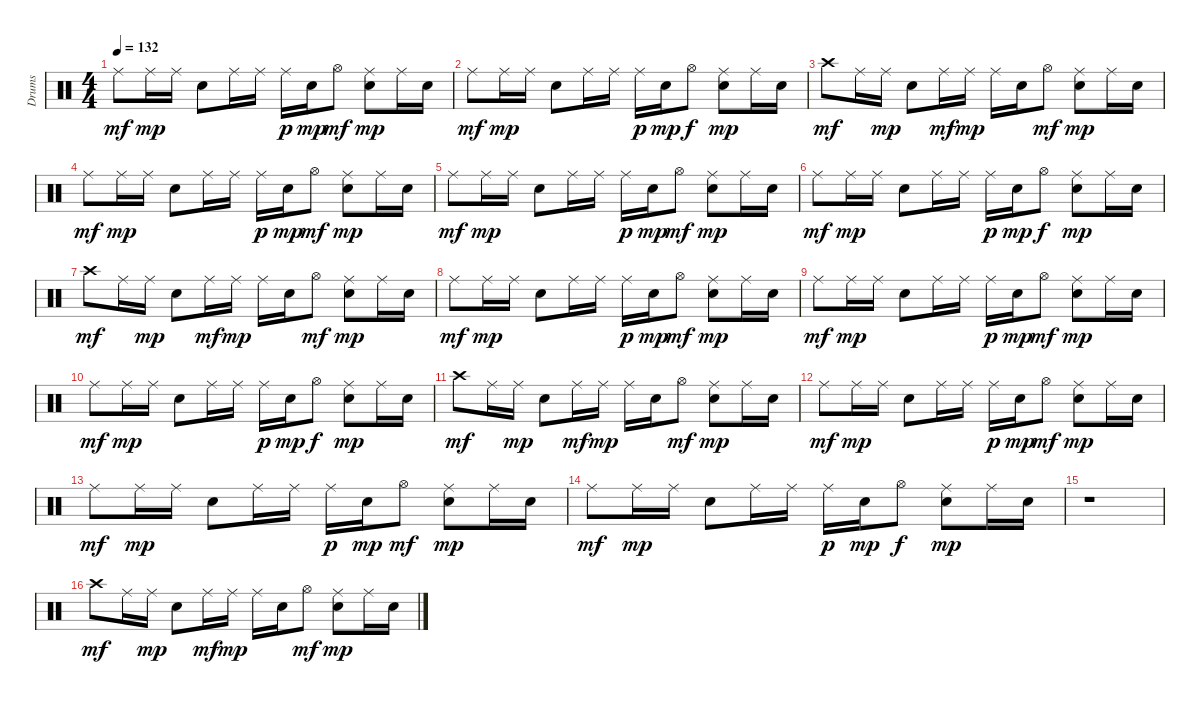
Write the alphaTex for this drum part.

\track ("Drums" "Drums") {instrument percussion}
\staff {score}
\articulation defaults
\ts (4 4)
\tempo 132
\clef neutral
\ks c "Ride (middle)".8{dy mf} "Ride (middle)".16{dy mp} "Ride (middle)".16 "Electric Snare (hit)".8 "Ride (middle)".16 "Ride (middle)".16 "Ride (middle)".16{dy p} "Electric Snare (hit)".16{dy mp} "Hi-Hat (open)".8{dy mf}
("Electric Snare (hit)" "Ride (middle)").8{dy mp} "Ride (middle)".16 "Electric Snare (hit)".16 |
"Ride (middle)".8{dy mf} "Ride (middle)".16{dy mp} "Ride (middle)".16 "Electric Snare (hit)".8 "Ride (middle)".16 "Ride (middle)".16 "Ride (middle)".16{dy p} "Electric Snare (hit)".16{dy mp} "Hi-Hat (open)".8{dy f} ("Electric Snare (hit)" "Ride (middle)").8{dy mp} "Ride (middle)".16 "Electric Snare (hit)".16 |
"Crash high (hit)".8{dy mf} "Ride (middle)".16 "Ride (middle)".16{dy mp} "Electric Snare (hit)".8 "Ride (middle)".16{dy mf} "Ride (middle)".16{dy mp} "Ride (middle)".16 "Electric Snare (hit)".16 "Hi-Hat (open)".8{dy mf} ("Electric Snare (hit)" "Ride (middle)").8{dy mp} "Ride (middle)".16 "Electric Snare (hit)".16 |
"Ride (middle)".8{dy mf} "Ride (middle)".16{dy mp} "Ride (middle)".16 "Electric Snare (hit)".8 "Ride (middle)".16 "Ride (middle)".16 "Ride (middle)".16{dy p} "Electric Snare (hit)".16{dy mp} "Hi-Hat (open)".8{dy mf} ("Ride (middle)" "Electric Snare (hit)").8{dy mp} "Ride (middle)".16 "Electric Snare (hit)".16 |
"Ride (middle)".8{dy mf} "Ride (middle)".16{dy mp} "Ride (middle)".16 "Electric Snare (hit)".8 "Ride (middle)".16 "Ride (middle)".16 "Ride (middle)".16{dy p} "Electric Snare (hit)".16{dy mp} "Hi-Hat (open)".8{dy mf} ("Ride (middle)" "Electric Snare (hit)").8{dy mp} "Ride (middle)".16 "Electric Snare (hit)".16 |
"Ride (middle)".8{dy mf} "Ride (middle)".16{dy mp} "Ride (middle)".16 "Electric Snare (hit)".8 "Ride (middle)".16 "Ride (middle)".16 "Ride (middle)".16{dy p} "Electric Snare (hit)".16{dy mp} "Hi-Hat (open)".8{dy f} ("Electric Snare (hit)" "Ride (middle)").8{dy mp} "Ride (middle)".16 "Electric Snare (hit)".16 |
"Crash high (hit)".8{dy mf} "Ride (middle)".16 "Ride (middle)".16{dy mp} "Electric Snare (hit)".8 "Ride (middle)".16{dy mf} "Ride (middle)".16{dy mp} "Ride (middle)".16 "Electric Snare (hit)".16 "Hi-Hat (open)".8{dy mf} ("Ride (middle)" "Electric Snare (hit)").8{dy mp} "Ride (middle)".16 "Electric Snare (hit)".16 |
"Ride (middle)".8{dy mf} "Ride (middle)".16{dy mp} "Ride (middle)".16 "Electric Snare (hit)".8 "Ride (middle)".16 "Ride (middle)".16 "Ride (middle)".16{dy p} "Electric Snare (hit)".16{dy mp} "Hi-Hat (open)".8{dy mf} ("Ride (middle)" "Electric Snare (hit)").8{dy mp} "Ride (middle)".16 "Electric Snare (hit)".16 |
"Ride (middle)".8{dy mf} "Ride (middle)".16{dy mp} "Ride (middle)".16 "Electric Snare (hit)".8 "Ride (middle)".16 "Ride (middle)".16 "Ride (middle)".16{dy p} "Electric Snare (hit)".16{dy mp} "Hi-Hat (open)".8{dy mf} ("Electric Snare (hit)" "Ride (middle)").8{dy mp} "Ride (middle)".16 "Electric Snare (hit)".16 |
"Ride (middle)".8{dy mf} "Ride (middle)".16{dy mp} "Ride (middle)".16 "Electric Snare (hit)".8 "Ride (middle)".16 "Ride (middle)".16 "Ride (middle)".16{dy p} "Electric Snare (hit)".16{dy mp} "Hi-Hat (open)".8{dy f} ("Electric Snare (hit)" "Ride (middle)").8{dy mp} "Ride (middle)".16 "Electric Snare (hit)".16 |
"Crash high (hit)".8{dy mf} "Ride (middle)".16 "Ride (middle)".16{dy mp} "Electric Snare (hit)".8 "Ride (middle)".16{dy mf} "Ride (middle)".16{dy mp} "Ride (middle)".16 "Electric Snare (hit)".16 "Hi-Hat (open)".8{dy mf} ("Ride (middle)" "Electric Snare (hit)").8{dy mp} "Ride (middle)".16 "Electric Snare (hit)".16 |
"Ride (middle)".8{dy mf} "Ride (middle)".16{dy mp} "Ride (middle)".16 "Electric Snare (hit)".8 "Ride (middle)".16 "Ride (middle)".16 "Ride (middle)".16{dy p} "Electric Snare (hit)".16{dy mp} "Hi-Hat (open)".8{dy mf} ("Ride (middle)" "Electric Snare (hit)").8{dy mp} "Ride (middle)".16 "Electric Snare (hit)".16 |
"Ride (middle)".8{dy mf} "Ride (middle)".16{dy mp} "Ride (middle)".16 "Electric Snare (hit)".8 "Ride (middle)".16 "Ride (middle)".16 "Ride (middle)".16{dy p} "Electric Snare (hit)".16{dy mp} "Hi-Hat (open)".8{dy mf} ("Electric Snare (hit)" "Ride (middle)").8{dy mp} "Ride (middle)".16 "Electric Snare (hit)".16 |
"Ride (middle)".8{dy mf} "Ride (middle)".16{dy mp} "Ride (middle)".16 "Electric Snare (hit)".8 "Ride (middle)".16 "Ride (middle)".16 "Ride (middle)".16{dy p} "Electric Snare (hit)".16{dy mp} "Hi-Hat (open)".8{dy f} ("Electric Snare (hit)" "Ride (middle)").8{dy mp} "Ride (middle)".16 "Electric Snare (hit)".16 |
r.1 |
"Crash high (hit)".8{dy mf} "Ride (middle)".16 "Ride (middle)".16{dy mp} "Electric Snare (hit)".8 "Ride (middle)".16{dy mf} "Ride (middle)".16{dy mp} "Ride (middle)".16 "Electric Snare (hit)".16 "Hi-Hat (open)".8{dy mf} ("Ride (middle)" "Electric Snare (hit)").8{dy mp} "Ride (middle)".16 "Electric Snare (hit)".16
